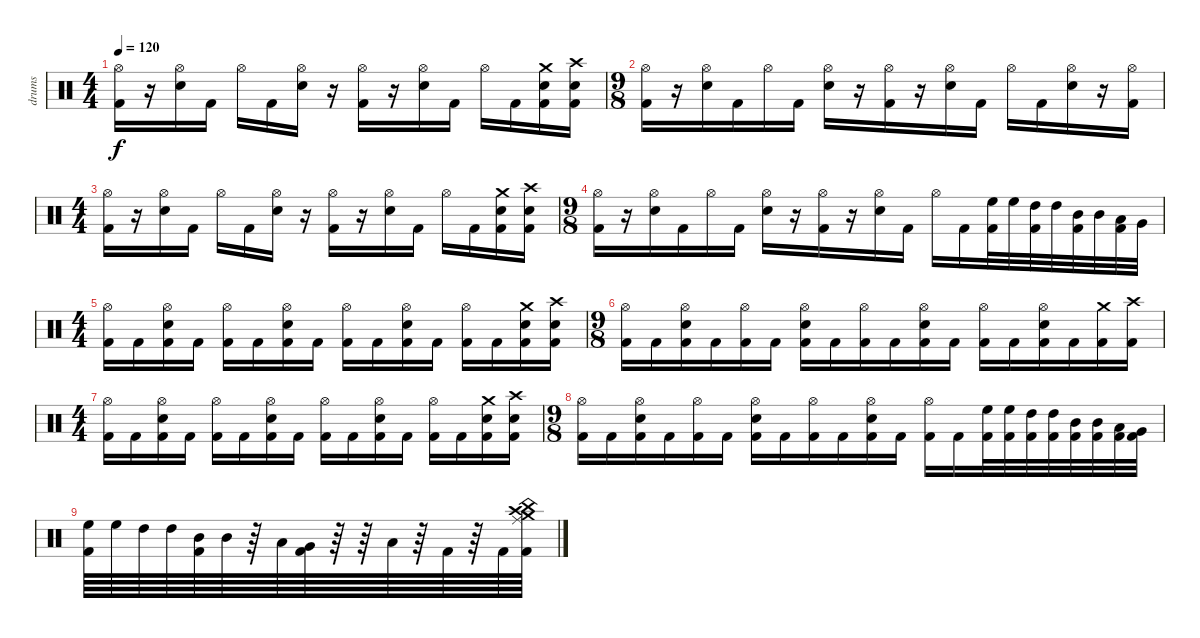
\track ("drums" "drums") {instrument percussion}
\staff {score}
\articulation defaults
\ts (4 4)
\tempo 120
\clef neutral
\ks c
("Hi-Hat (open)" "Kick (hit) 2").16{dy f} r.16 ("Hi-Hat (open)" "Snare (hit) 2").16 "Kick (hit) 2".16 "Hi-Hat (open)".16 "Kick (hit) 2".16 ("Hi-Hat (open)" "Snare (hit) 2").16 r.16 ("Hi-Hat (open)" "Kick (hit) 2").16 r.16 ("Hi-Hat (open)" "Snare (hit) 2").16 "Kick (hit) 2".16 "Hi-Hat (open)".16 "Kick (hit) 2".16 ("Crash medium (hit)" "Snare (hit) 2" "Kick (hit) 2").16 ("Crash high (hit)" "Snare (hit) 2" "Kick (hit) 2").16 |
\ts (9 8)
("Hi-Hat (open)" "Kick (hit) 2").16 r.16 ("Hi-Hat (open)" "Snare (hit) 2").16 "Kick (hit) 2".16 "Hi-Hat (open)".16 "Kick (hit) 2".16 ("Hi-Hat (open)" "Snare (hit) 2").16 r.16 ("Hi-Hat (open)" "Kick (hit) 2").16 r.16 ("Hi-Hat (open)" "Snare (hit) 2").16 "Kick (hit) 2".16 "Hi-Hat (open)".16 "Kick (hit) 2".16 ("Hi-Hat (open)" "Snare (hit) 2").16 r.16 ("Hi-Hat (open)" "Kick (hit) 2").16 |
\ts (4 4)
("Hi-Hat (open)" "Kick (hit) 2").16 r.16 ("Hi-Hat (open)" "Snare (hit) 2").16 "Kick (hit) 2".16 "Hi-Hat (open)".16 "Kick (hit) 2".16 ("Hi-Hat (open)" "Snare (hit) 2").16 r.16 ("Hi-Hat (open)" "Kick (hit) 2").16 r.16 ("Hi-Hat (open)" "Snare (hit) 2").16 "Kick (hit) 2".16 "Hi-Hat (open)".16 "Kick (hit) 2".16 ("Crash medium (hit)" "Snare (hit) 2" "Kick (hit) 2").16 ("Crash high (hit)" "Snare (hit) 2" "Kick (hit) 2").16 |
\ts (9 8)
("Hi-Hat (open)" "Kick (hit) 2").16 r.16 ("Hi-Hat (open)" "Snare (hit) 2").16 "Kick (hit) 2".16 "Hi-Hat (open)".16 "Kick (hit) 2".16 ("Hi-Hat (open)" "Snare (hit) 2").16 r.16 ("Hi-Hat (open)" "Kick (hit) 2").16 r.16 ("Hi-Hat (open)" "Snare (hit) 2").16 "Kick (hit) 2".16 "Hi-Hat (open)".16 "Kick (hit) 2".16 ("High Floor Tom (hit)" "Kick (hit) 2").32 "High Floor Tom (hit)".32 ("High Tom (hit)" "Kick (hit) 2").32 "High Tom (hit)".32 ("Mid Tom (hit)" "Kick (hit) 2").32 "Mid Tom (hit)".32 ("Low Tom (hit)" "Kick (hit) 2").32 "Very Low Tom (hit)".32 |
\ts (4 4)
("Hi-Hat (open)" "Kick (hit) 2").16 "Kick (hit) 2".16 ("Hi-Hat (open)" "Snare (hit) 2" "Kick (hit) 2").16 "Kick (hit) 2".16 ("Hi-Hat (open)" "Kick (hit) 2").16 "Kick (hit) 2".16 ("Hi-Hat (open)" "Snare (hit) 2" "Kick (hit) 2").16 "Kick (hit) 2".16 ("Hi-Hat (open)" "Kick (hit) 2").16 "Kick (hit) 2".16 ("Hi-Hat (open)" "Snare (hit) 2" "Kick (hit) 2").16 "Kick (hit) 2".16 ("Hi-Hat (open)" "Kick (hit) 2").16 "Kick (hit) 2".16 ("Crash medium (hit)" "Snare (hit) 2" "Kick (hit) 2").16 ("Crash high (hit)" "Snare (hit) 2" "Kick (hit) 2").16 |
\ts (9 8)
("Hi-Hat (open)" "Kick (hit) 2").16 "Kick (hit) 2".16 ("Hi-Hat (open)" "Snare (hit) 2" "Kick (hit) 2").16 "Kick (hit) 2".16 ("Hi-Hat (open)" "Kick (hit) 2").16 "Kick (hit) 2".16 ("Hi-Hat (open)" "Snare (hit) 2" "Kick (hit) 2").16 "Kick (hit) 2".16 ("Hi-Hat (open)" "Kick (hit) 2").16 "Kick (hit) 2".16 ("Hi-Hat (open)" "Snare (hit) 2" "Kick (hit) 2").16 "Kick (hit) 2".16 ("Hi-Hat (open)" "Kick (hit) 2").16 "Kick (hit) 2".16 ("Hi-Hat (open)" "Snare (hit) 2" "Kick (hit) 2").16 "Kick (hit) 2".16 ("Crash medium (hit)" "Kick (hit) 2").16 ("Crash high (hit)" "Kick (hit) 2").16 |
\ts (4 4)
("Hi-Hat (open)" "Kick (hit) 2").16 "Kick (hit) 2".16 ("Hi-Hat (open)" "Snare (hit) 2" "Kick (hit) 2").16 "Kick (hit) 2".16 ("Hi-Hat (open)" "Kick (hit) 2").16 "Kick (hit) 2".16 ("Hi-Hat (open)" "Snare (hit) 2" "Kick (hit) 2").16 "Kick (hit) 2".16 ("Hi-Hat (open)" "Kick (hit) 2").16 "Kick (hit) 2".16 ("Hi-Hat (open)" "Snare (hit) 2" "Kick (hit) 2").16 "Kick (hit) 2".16 ("Hi-Hat (open)" "Kick (hit) 2").16 "Kick (hit) 2".16 ("Crash medium (hit)" "Snare (hit) 2" "Kick (hit) 2").16 ("Crash high (hit)" "Snare (hit) 2" "Kick (hit) 2").16 |
\ts (9 8)
("Hi-Hat (open)" "Kick (hit) 2").16 "Kick (hit) 2".16 ("Hi-Hat (open)" "Snare (hit) 2" "Kick (hit) 2").16 "Kick (hit) 2".16 ("Hi-Hat (open)" "Kick (hit) 2").16 "Kick (hit) 2".16 ("Hi-Hat (open)" "Snare (hit) 2" "Kick (hit) 2").16 "Kick (hit) 2".16 ("Hi-Hat (open)" "Kick (hit) 2").16 "Kick (hit) 2".16 ("Hi-Hat (open)" "Snare (hit) 2" "Kick (hit) 2").16 "Kick (hit) 2".16 ("Hi-Hat (open)" "Kick (hit) 2").16 "Kick (hit) 2".16 ("High Floor Tom (hit)" "Kick (hit) 2").32 ("High Floor Tom (hit)" "Kick (hit) 2").32 ("High Tom (hit)" "Kick (hit) 2").32 ("High Tom (hit)" "Kick (hit) 2").32 ("Mid Tom (hit)" "Kick (hit) 2").32 ("Mid Tom (hit)" "Kick (hit) 2").32 ("Low Tom (hit)" "Kick (hit) 2").32 ("Very Low Tom (hit)" "Kick (hit) 2").32 |
("High Floor Tom (hit)" "Kick (hit) 2").64 "High Floor Tom (hit)".64 "High Tom (hit)".64 "High Tom (hit)".64 ("Mid Tom (hit)" "Kick (hit) 2").64 "Mid Tom (hit)".64 r.64 "Low Tom (hit)".64 ("Very Low Tom (hit)" "Kick (hit) 2").64 r.64 r.64 "Low Floor Tom (hit)".64 r.64 "Kick (hit) 2".64 r.64 "Kick (hit) 2".64 ("Crash high (hit)" "Ride (middle)" "China (hit)" "Crash medium (hit)" "Kick (hit) 2").64
